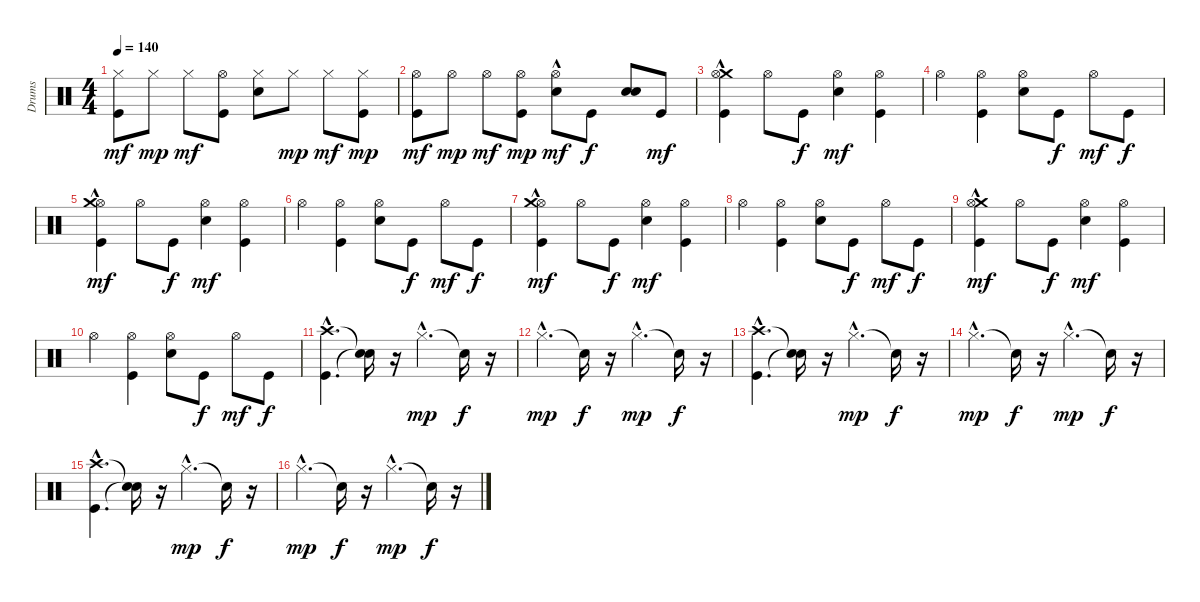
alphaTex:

\track ("Drums" "Drums") {instrument percussion}
\staff {score}
\articulation defaults
\ts (4 4)
\tempo 140
\clef neutral
\ks c
("Kick (hit)" "Hi-Hat (closed)").8{dy mf} "Hi-Hat (closed)".8{dy mp} "Hi-Hat (closed)".8{dy mf} ("Kick (hit)" "Hi-Hat (open)").8 ("Electric Snare (hit)" "Hi-Hat (closed)").8 "Hi-Hat (closed)".8{dy mp} "Hi-Hat (closed)".8{dy mf} ("Kick (hit)" "Hi-Hat (closed)").8{dy mp} |
("Hi-Hat (open)" "Kick (hit)").8{dy mf} "Hi-Hat (open)".8{dy mp} "Hi-Hat (open)".8{dy mf} ("Hi-Hat (open)" "Kick (hit)").8{dy mp} ("Hi-Hat (open)"{hac} "Electric Snare (hit)").8{dy mf} "Kick (hit)".8{dy f} ("Electric Snare (hit)" "Electric Snare (hit)").8 "Kick (hit)".8{dy mf} |
("Crash medium (hit)"{hac} "Hi-Hat (open)" "Kick (hit)").4 "Hi-Hat (open)".8 "Kick (hit)".8{dy f} ("Hi-Hat (open)" "Electric Snare (hit)").4{dy mf} ("Hi-Hat (open)" "Kick (hit)").4 |
"Hi-Hat (open)".4 ("Hi-Hat (open)" "Kick (hit)").4 ("Hi-Hat (open)" "Electric Snare (hit)").8 "Kick (hit)".8{dy f} "Hi-Hat (open)".8{dy mf} "Kick (hit)".8{dy f} |
("Kick (hit)" "Hi-Hat (open)" "Crash medium (hit)"{hac}).4{dy mf} "Hi-Hat (open)".8 "Kick (hit)".8{dy f} ("Electric Snare (hit)" "Hi-Hat (open)").4{dy mf} ("Kick (hit)" "Hi-Hat (open)").4 |
"Hi-Hat (open)".4 ("Kick (hit)" "Hi-Hat (open)").4 ("Electric Snare (hit)" "Hi-Hat (open)").8 "Kick (hit)".8{dy f} "Hi-Hat (open)".8{dy mf} "Kick (hit)".8{dy f} |
("Kick (hit)" "Hi-Hat (open)" "Crash medium (hit)"{hac}).4{dy mf} "Hi-Hat (open)".8 "Kick (hit)".8{dy f} ("Electric Snare (hit)" "Hi-Hat (open)").4{dy mf} ("Kick (hit)" "Hi-Hat (open)").4 |
"Hi-Hat (open)".4 ("Kick (hit)" "Hi-Hat (open)").4 ("Electric Snare (hit)" "Hi-Hat (open)").8 "Kick (hit)".8{dy f} "Hi-Hat (open)".8{dy mf} "Kick (hit)".8{dy f} |
("Crash medium (hit)"{hac} "Hi-Hat (open)" "Kick (hit)").4{dy mf} "Hi-Hat (open)".8 "Kick (hit)".8{dy f} ("Hi-Hat (open)" "Electric Snare (hit)").4{dy mf} ("Hi-Hat (open)" "Kick (hit)").4 |
"Hi-Hat (open)".4 ("Hi-Hat (open)" "Kick (hit)").4 ("Hi-Hat (open)" "Electric Snare (hit)").8 "Kick (hit)".8{dy f} "Hi-Hat (open)".8{dy mf} "Kick (hit)".8{dy f} |
("Crash high (hit)"{hac} "Kick (hit)"{hac}).4{d} ("Snare (hit)"{t} "Snare (hit)"{t}).16 r.16 "Hi-Hat (closed)"{hac}.4{d dy mp} "Snare (hit)"{t}.16{dy f} r.16 |
"Hi-Hat (closed)"{hac}.4{d dy mp} "Snare (hit)"{t}.16{dy f} r.16 "Hi-Hat (closed)"{hac}.4{d dy mp} "Snare (hit)"{t}.16{dy f} r.16 |
("Kick (hit)"{hac} "Crash high (hit)"{hac}).4{d} ("Snare (hit)"{t} "Snare (hit)"{t}).16 r.16 "Hi-Hat (closed)"{hac}.4{d dy mp} "Snare (hit)"{t}.16{dy f} r.16 |
"Hi-Hat (closed)"{hac}.4{d dy mp} "Snare (hit)"{t}.16{dy f} r.16 "Hi-Hat (closed)"{hac}.4{d dy mp} "Snare (hit)"{t}.16{dy f} r.16 |
("Kick (hit)"{hac} "Crash high (hit)"{hac}).4{d} ("Snare (hit)"{t} "Snare (hit)"{t}).16 r.16 "Hi-Hat (closed)"{hac}.4{d dy mp} "Snare (hit)"{t}.16{dy f} r.16 |
"Hi-Hat (closed)"{hac}.4{d dy mp} "Snare (hit)"{t}.16{dy f} r.16 "Hi-Hat (closed)"{hac}.4{d dy mp} "Snare (hit)"{t}.16{dy f} r.16
